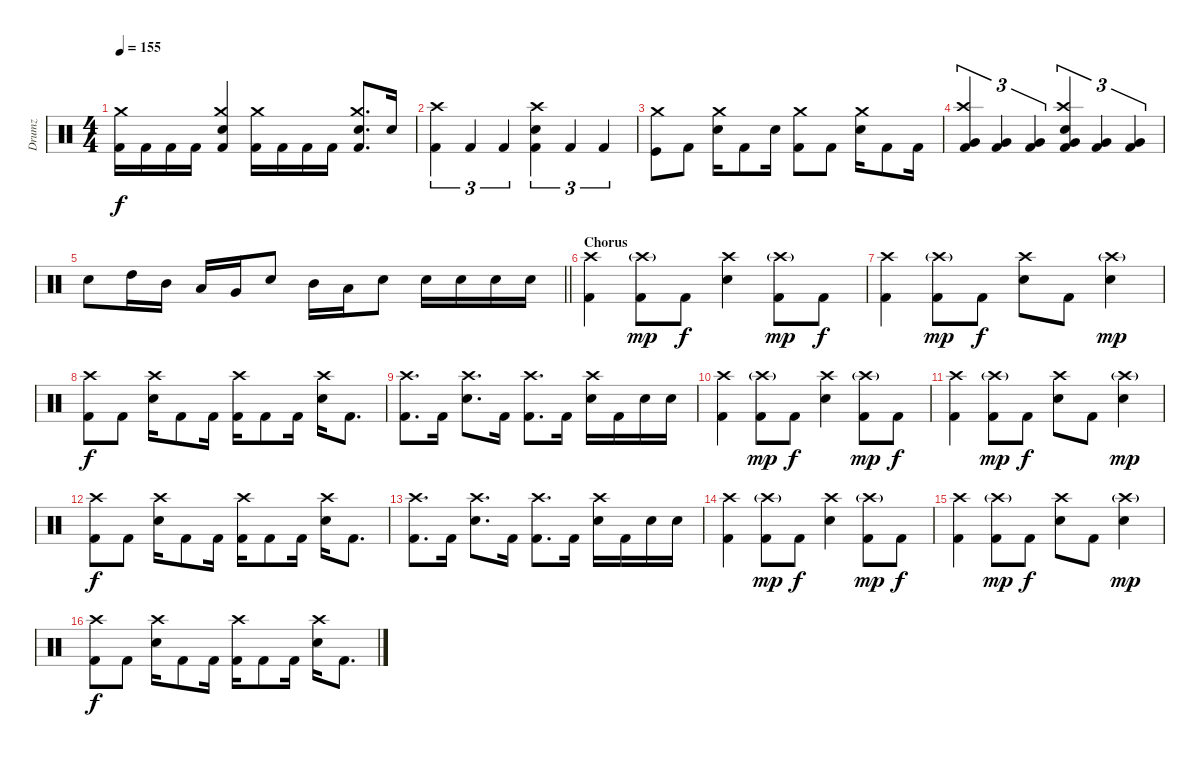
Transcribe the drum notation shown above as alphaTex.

\track ("Drumz" "Drumz") {instrument percussion}
\staff {score}
\articulation defaults
\ts (4 4)
\tempo 155
\clef neutral
\ks c
("Kick (hit) 2" "Crash medium (hit)").16{dy f} "Kick (hit) 2".16 "Kick (hit) 2".16 "Kick (hit) 2".16 ("Kick (hit) 2" "Crash medium (hit)" "Electric Snare (hit)").4 ("Kick (hit) 2" "Crash medium (hit)").16 "Kick (hit) 2".16 "Kick (hit) 2".16 "Kick (hit) 2".16 ("Kick (hit) 2" "Crash medium (hit)" "Electric Snare (hit)").8{d} "Electric Snare (hit)".16 |
("Crash high (hit)" "Kick (hit) 2").4{tu (3 2)} "Kick (hit) 2".4{tu (3 2)} "Kick (hit) 2".4{tu (3 2)} ("Crash high (hit)" "Kick (hit) 2" "Electric Snare (hit)").4{tu (3 2)} "Kick (hit) 2".4{tu (3 2)} "Kick (hit) 2".4{tu (3 2)} |
("Kick (hit)" "Crash medium (hit)").8 "Kick (hit) 2".8 ("Electric Snare (hit)" "Crash medium (hit)").16 "Kick (hit) 2".8 "Electric Snare (hit)".16 ("Crash medium (hit)" "Kick (hit) 2").8 "Kick (hit) 2".8 ("Crash medium (hit)" "Electric Snare (hit)").16 "Kick (hit) 2".8 "Kick (hit) 2".16 |
("Crash high (hit)" "Kick (hit) 2" "Very Low Tom (hit)").4{tu (3 2)} ("Kick (hit) 2" "Very Low Tom (hit)").4{tu (3 2)} ("Kick (hit) 2" "Very Low Tom (hit)").4{tu (3 2)} ("Crash high (hit)" "Kick (hit) 2" "Electric Snare (hit)" "Very Low Tom (hit)").4{tu (3 2)} ("Kick (hit) 2" "Very Low Tom (hit)").4{tu (3 2)} ("Kick (hit) 2" "Very Low Tom (hit)").4{tu (3 2)} |
\barLineRight lightlight "Electric Snare (hit)".8 "High Tom (hit)".16 "Mid Tom (hit)".16 "Low Tom (hit)".16 "Very Low Tom (hit)".16 "Electric Snare (hit)".8 "Mid Tom (hit)".16 "Low Tom (hit)".16 "Electric Snare (hit)".8 "Electric Snare (hit)".16 "Electric Snare (hit)".16 "Electric Snare (hit)".16 "Electric Snare (hit)".16
|
\section ("" "Chorus")
("Kick (hit) 2" "Crash high (hit)").4 ("Kick (hit) 2" "Crash high (hit)"{g}).8{dy mp} "Kick (hit) 2".8{dy f} ("Crash high (hit)" "Electric Snare (hit)").4 ("Kick (hit) 2" "Crash high (hit)"{g}).8{dy mp} "Kick (hit) 2".8{dy f} |
("Kick (hit) 2" "Crash high (hit)").4 ("Kick (hit) 2" "Crash high (hit)"{g}).8{dy mp} "Kick (hit) 2".8{dy f} ("Crash high (hit)" "Electric Snare (hit)").8 "Kick (hit) 2".8 ("Electric Snare (hit)" "Crash high (hit)"{g}).4{dy mp} |
("Kick (hit) 2" "Crash high (hit)").8{dy f} "Kick (hit) 2".8 ("Crash high (hit)" "Electric Snare (hit)").16 "Kick (hit) 2".8 "Kick (hit) 2".16 ("Kick (hit) 2" "Crash high (hit)").16 "Kick (hit) 2".8 "Kick (hit) 2".16 ("Crash high (hit)" "Electric Snare (hit)").16 "Kick (hit) 2".8{d} |
("Kick (hit) 2" "Crash high (hit)").8{d} "Kick (hit) 2".16 ("Crash high (hit)" "Electric Snare (hit)").8{d} "Kick (hit) 2".16 ("Kick (hit) 2" "Crash high (hit)").8{d} "Kick (hit) 2".16 ("Crash high (hit)" "Electric Snare (hit)").16 "Kick (hit) 2".16 "Electric Snare (hit)".16 "Electric Snare (hit)".16 |
("Kick (hit) 2" "Crash high (hit)").4 ("Kick (hit) 2" "Crash high (hit)"{g}).8{dy mp} "Kick (hit) 2".8{dy f} ("Crash high (hit)" "Electric Snare (hit)").4 ("Kick (hit) 2" "Crash high (hit)"{g}).8{dy mp} "Kick (hit) 2".8{dy f} |
("Kick (hit) 2" "Crash high (hit)").4 ("Kick (hit) 2" "Crash high (hit)"{g}).8{dy mp} "Kick (hit) 2".8{dy f} ("Crash high (hit)" "Electric Snare (hit)").8 "Kick (hit) 2".8 ("Electric Snare (hit)" "Crash high (hit)"{g}).4{dy mp} |
("Kick (hit) 2" "Crash high (hit)").8{dy f} "Kick (hit) 2".8 ("Crash high (hit)" "Electric Snare (hit)").16 "Kick (hit) 2".8 "Kick (hit) 2".16 ("Kick (hit) 2" "Crash high (hit)").16 "Kick (hit) 2".8 "Kick (hit) 2".16 ("Crash high (hit)" "Electric Snare (hit)").16 "Kick (hit) 2".8{d} |
("Kick (hit) 2" "Crash high (hit)").8{d} "Kick (hit) 2".16 ("Crash high (hit)" "Electric Snare (hit)").8{d} "Kick (hit) 2".16 ("Kick (hit) 2" "Crash high (hit)").8{d} "Kick (hit) 2".16 ("Crash high (hit)" "Electric Snare (hit)").16 "Kick (hit) 2".16 "Electric Snare (hit)".16 "Electric Snare (hit)".16 |
("Kick (hit) 2" "Crash high (hit)").4 ("Kick (hit) 2" "Crash high (hit)"{g}).8{dy mp} "Kick (hit) 2".8{dy f} ("Crash high (hit)" "Electric Snare (hit)").4 ("Kick (hit) 2" "Crash high (hit)"{g}).8{dy mp} "Kick (hit) 2".8{dy f} |
("Kick (hit) 2" "Crash high (hit)").4 ("Kick (hit) 2" "Crash high (hit)"{g}).8{dy mp} "Kick (hit) 2".8{dy f} ("Crash high (hit)" "Electric Snare (hit)").8 "Kick (hit) 2".8 ("Electric Snare (hit)" "Crash high (hit)"{g}).4{dy mp} |
("Kick (hit) 2" "Crash high (hit)").8{dy f} "Kick (hit) 2".8 ("Crash high (hit)" "Electric Snare (hit)").16 "Kick (hit) 2".8 "Kick (hit) 2".16 ("Kick (hit) 2" "Crash high (hit)").16 "Kick (hit) 2".8 "Kick (hit) 2".16 ("Crash high (hit)" "Electric Snare (hit)").16 "Kick (hit) 2".8{d}
